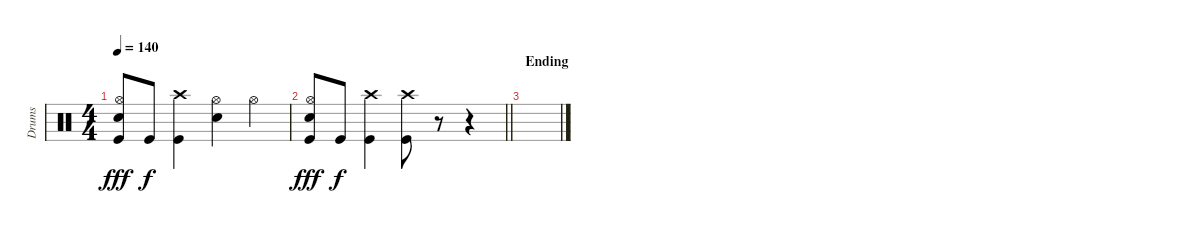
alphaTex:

\track ("Drums" "Drums") {instrument percussion}
\staff {score}
\articulation defaults
\ts (4 4)
\tempo 140
\clef neutral
\ks c
("Kick (hit)" "Hi-Hat (open)" "Snare (hit) 2").8{dy fff} "Kick (hit)".8{dy f} ("Kick (hit)" "Crash high (hit)").4 ("Snare (hit) 2" "Hi-Hat (open)").4 "Hi-Hat (open)".4 |
\barLineRight lightlight
("Kick (hit)" "Hi-Hat (open)" "Snare (hit) 2").8{dy fff} "Kick (hit)".8{dy f} ("Kick (hit)" "Crash high (hit)").4 ("Kick (hit)" "Crash high (hit)").8 r.8 r.4 |
\section ("" "Ending")
